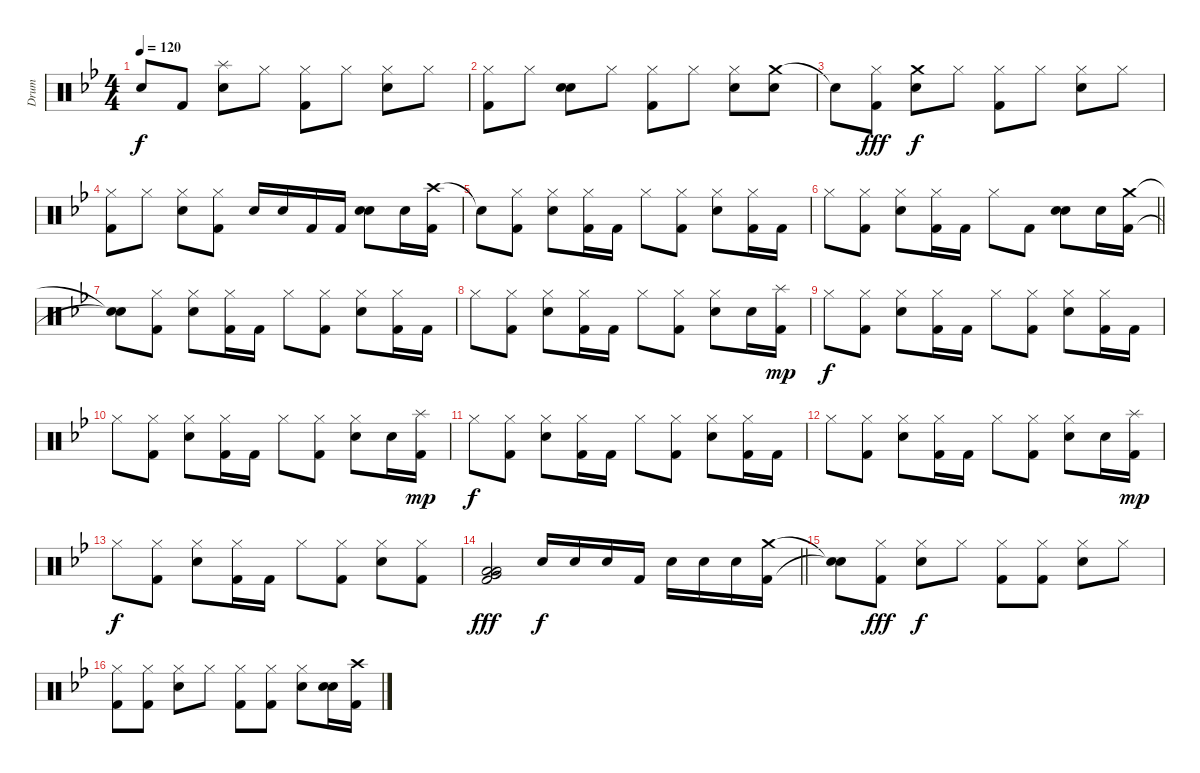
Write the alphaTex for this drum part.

\track ("Drum" "Drum") {instrument percussion}
\staff {score}
\articulation defaults
\ts (4 4)
\tempo 120
\clef neutral
\ks gminor "Snare (hit)"{t}.8{dy f} "Kick (hit) 2".8
("Splash (hit)" "Electric Snare (hit)").8 "Hi-Hat (closed)".8 ("Hi-Hat (closed)" "Kick (hit) 2").8 "Hi-Hat (closed)".8 ("Hi-Hat (closed)" "Electric Snare (hit)").8 "Hi-Hat (closed)".8 |
("Hi-Hat (closed)" "Kick (hit) 2").8 "Hi-Hat (closed)".8 ("Snare (hit)" "Electric Snare (hit)").8 "Hi-Hat (closed)".8 ("Hi-Hat (closed)" "Kick (hit) 2").8 "Hi-Hat (closed)".8 ("Hi-Hat (closed)" "Electric Snare (hit)").8 ("Crash medium (hit)" "Electric Snare (hit)").8 |
"Snare (hit)"{t}.8 ("Hi-Hat (closed)" "Kick (hit) 2").8{dy fff} ("Crash medium (hit)" "Electric Snare (hit)").8{dy f} "Hi-Hat (closed)".8 ("Hi-Hat (closed)" "Kick (hit) 2").8 "Hi-Hat (closed)".8 ("Hi-Hat (closed)" "Electric Snare (hit)").8 "Hi-Hat (closed)".8 |
("Hi-Hat (closed)" "Kick (hit) 2").8 "Hi-Hat (closed)".8 ("Hi-Hat (closed)" "Electric Snare (hit)").8 ("Hi-Hat (closed)" "Kick (hit) 2").8 "Electric Snare (hit)".16 "Electric Snare (hit)".16 "Kick (hit) 2".16 "Kick (hit) 2".16 ("Electric Snare (hit)" "Electric Snare (hit)").8 "Electric Snare (hit)".16 ("Crash high (hit)" "Kick (hit) 2").16 |
"Snare (hit)"{t}.8 ("Hi-Hat (closed)" "Kick (hit) 2").8 ("Hi-Hat (closed)" "Electric Snare (hit)").8 ("Hi-Hat (closed)" "Kick (hit) 2").16 "Kick (hit) 2".16 "Hi-Hat (closed)".8 ("Hi-Hat (closed)" "Kick (hit) 2").8 ("Hi-Hat (closed)" "Electric Snare (hit)").8 ("Hi-Hat (closed)" "Kick (hit) 2").16 "Kick (hit) 2".16 |
\barLineRight lightlight "Hi-Hat (closed)".8
("Hi-Hat (closed)" "Kick (hit) 2").8 ("Hi-Hat (closed)" "Electric Snare (hit)").8 ("Hi-Hat (closed)" "Kick (hit) 2").16 "Kick (hit) 2".16 "Hi-Hat (closed)".8 "Kick (hit) 2".8 ("Electric Snare (hit)" "Electric Snare (hit)").8{bd 120} "Electric Snare (hit)".16 ("Crash medium (hit)" "Kick (hit) 2").16 |
("Snare (hit)"{t} "Snare (hit)"{t}).8 ("Hi-Hat (closed)" "Kick (hit) 2").8 ("Hi-Hat (closed)" "Electric Snare (hit)").8 ("Hi-Hat (closed)" "Kick (hit) 2").16 "Kick (hit) 2".16 "Hi-Hat (closed)".8 ("Hi-Hat (closed)" "Kick (hit) 2").8 ("Hi-Hat (closed)" "Electric Snare (hit)").8 ("Hi-Hat (closed)" "Kick (hit) 2").16 "Kick (hit) 2".16 |
"Hi-Hat (closed)".8 ("Hi-Hat (closed)" "Kick (hit) 2").8 ("Hi-Hat (closed)" "Electric Snare (hit)").8 ("Hi-Hat (closed)" "Kick (hit) 2").16 "Kick (hit) 2".16 "Hi-Hat (closed)".8 ("Hi-Hat (closed)" "Kick (hit) 2").8 ("Hi-Hat (closed)" "Electric Snare (hit)").8 "Electric Snare (hit)".16 ("Splash (hit)" "Kick (hit) 2").16{dy mp} |
"Hi-Hat (closed)".8{dy f} ("Hi-Hat (closed)" "Kick (hit) 2").8 ("Hi-Hat (closed)" "Electric Snare (hit)").8 ("Hi-Hat (closed)" "Kick (hit) 2").16 "Kick (hit) 2".16 "Hi-Hat (closed)".8 ("Hi-Hat (closed)" "Kick (hit) 2").8 ("Hi-Hat (closed)" "Electric Snare (hit)").8 ("Hi-Hat (closed)" "Kick (hit) 2").16 "Kick (hit) 2".16 |
"Hi-Hat (closed)".8 ("Hi-Hat (closed)" "Kick (hit) 2").8 ("Hi-Hat (closed)" "Electric Snare (hit)").8 ("Hi-Hat (closed)" "Kick (hit) 2").16 "Kick (hit) 2".16 "Hi-Hat (closed)".8 ("Hi-Hat (closed)" "Kick (hit) 2").8 ("Hi-Hat (closed)" "Electric Snare (hit)").8 "Electric Snare (hit)".16 ("Splash (hit)" "Kick (hit) 2").16{dy mp} |
"Hi-Hat (closed)".8{dy f} ("Hi-Hat (closed)" "Kick (hit) 2").8 ("Hi-Hat (closed)" "Electric Snare (hit)").8 ("Hi-Hat (closed)" "Kick (hit) 2").16 "Kick (hit) 2".16 "Hi-Hat (closed)".8 ("Hi-Hat (closed)" "Kick (hit) 2").8 ("Hi-Hat (closed)" "Electric Snare (hit)").8 ("Hi-Hat (closed)" "Kick (hit) 2").16 "Kick (hit) 2".16 |
"Hi-Hat (closed)".8 ("Hi-Hat (closed)" "Kick (hit) 2").8 ("Hi-Hat (closed)" "Electric Snare (hit)").8 ("Hi-Hat (closed)" "Kick (hit) 2").16 "Kick (hit) 2".16 "Hi-Hat (closed)".8 ("Hi-Hat (closed)" "Kick (hit) 2").8 ("Hi-Hat (closed)" "Electric Snare (hit)").8 "Electric Snare (hit)".16 ("Splash (hit)" "Kick (hit) 2").16{dy mp} |
"Hi-Hat (closed)".8{dy f} ("Hi-Hat (closed)" "Kick (hit) 2").8 ("Hi-Hat (closed)" "Electric Snare (hit)").8 ("Hi-Hat (closed)" "Kick (hit) 2").16 "Kick (hit) 2".16 "Hi-Hat (closed)".8 ("Hi-Hat (closed)" "Kick (hit) 2").8 ("Hi-Hat (closed)" "Electric Snare (hit)").8 ("Hi-Hat (closed)" "Kick (hit) 2").8 |
\barLineRight lightlight
("Low Floor Tom (hit)" "Very Low Tom (hit)" "Low Tom (hit)" "Kick (hit) 2").2{dy fff} "Electric Snare (hit)".16{dy f} "Electric Snare (hit)".16 "Electric Snare (hit)".16 "Kick (hit) 2".16 "Electric Snare (hit)".16 "Electric Snare (hit)".16 "Electric Snare (hit)".16 ("Crash medium (hit)" "Kick (hit) 2").16 |
("Snare (hit)"{t} "Snare (hit)"{t}).8 ("Hi-Hat (closed)" "Kick (hit) 2").8{dy fff} ("Hi-Hat (closed)" "Electric Snare (hit)").8{dy f} "Hi-Hat (closed)".8 ("Hi-Hat (closed)" "Kick (hit) 2").8 ("Hi-Hat (closed)" "Kick (hit) 2").8 ("Hi-Hat (closed)" "Electric Snare (hit)").8 "Hi-Hat (closed)".8 |
("Hi-Hat (closed)" "Kick (hit) 2").8 ("Hi-Hat (closed)" "Kick (hit) 2").8 ("Hi-Hat (closed)" "Electric Snare (hit)").8 "Hi-Hat (closed)".8 ("Hi-Hat (closed)" "Kick (hit) 2").8 ("Hi-Hat (closed)" "Kick (hit) 2").8 ("Hi-Hat (closed)" "Electric Snare (hit)").8 ("Electric Snare (hit)" "Electric Snare (hit)").16 ("Crash high (hit)" "Kick (hit) 2").16
